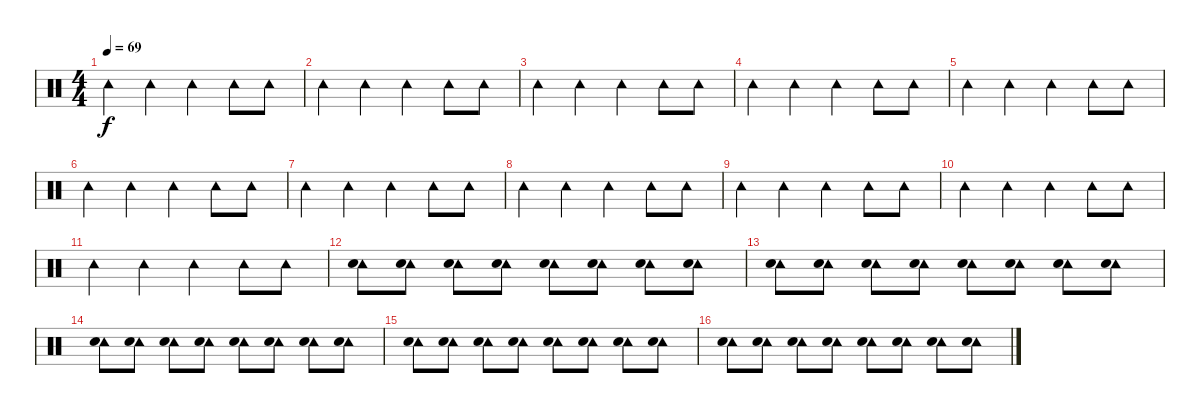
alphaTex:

\track "" {instrument percussion}
\staff {score}
\articulation defaults
\ts (4 4)
\tempo 69
\clef neutral
\ks c "Tambourine (hit)".4{dy f} "Tambourine (hit)".4 "Tambourine (hit)".4 "Tambourine (hit)".8 "Tambourine (hit)".8
|
"Tambourine (hit)".4 "Tambourine (hit)".4 "Tambourine (hit)".4 "Tambourine (hit)".8 "Tambourine (hit)".8 |
"Tambourine (hit)".4 "Tambourine (hit)".4 "Tambourine (hit)".4 "Tambourine (hit)".8 "Tambourine (hit)".8 |
"Tambourine (hit)".4 "Tambourine (hit)".4 "Tambourine (hit)".4 "Tambourine (hit)".8 "Tambourine (hit)".8 |
"Tambourine (hit)".4 "Tambourine (hit)".4 "Tambourine (hit)".4 "Tambourine (hit)".8 "Tambourine (hit)".8 |
"Tambourine (hit)".4 "Tambourine (hit)".4 "Tambourine (hit)".4 "Tambourine (hit)".8 "Tambourine (hit)".8 |
"Tambourine (hit)".4 "Tambourine (hit)".4 "Tambourine (hit)".4 "Tambourine (hit)".8 "Tambourine (hit)".8 |
"Tambourine (hit)".4 "Tambourine (hit)".4 "Tambourine (hit)".4 "Tambourine (hit)".8 "Tambourine (hit)".8 |
"Tambourine (hit)".4 "Tambourine (hit)".4 "Tambourine (hit)".4 "Tambourine (hit)".8 "Tambourine (hit)".8 |
"Tambourine (hit)".4 "Tambourine (hit)".4 "Tambourine (hit)".4 "Tambourine (hit)".8 "Tambourine (hit)".8 |
"Tambourine (hit)".4 "Tambourine (hit)".4 "Tambourine (hit)".4 "Tambourine (hit)".8 "Tambourine (hit)".8 |
("Tambourine (hit)" "Snare (hit) 2").8 ("Tambourine (hit)" "Snare (hit) 2").8 ("Tambourine (hit)" "Snare (hit) 2").8 ("Tambourine (hit)" "Snare (hit) 2").8 ("Tambourine (hit)" "Snare (hit) 2").8 ("Tambourine (hit)" "Snare (hit) 2").8 ("Tambourine (hit)" "Snare (hit) 2").8 ("Tambourine (hit)" "Snare (hit) 2").8 |
("Tambourine (hit)" "Snare (hit) 2").8 ("Tambourine (hit)" "Snare (hit) 2").8 ("Tambourine (hit)" "Snare (hit) 2").8 ("Tambourine (hit)" "Snare (hit) 2").8 ("Tambourine (hit)" "Snare (hit) 2").8 ("Tambourine (hit)" "Snare (hit) 2").8 ("Tambourine (hit)" "Snare (hit) 2").8 ("Tambourine (hit)" "Snare (hit) 2").8 |
("Tambourine (hit)" "Snare (hit) 2").8 ("Tambourine (hit)" "Snare (hit) 2").8 ("Tambourine (hit)" "Snare (hit) 2").8 ("Tambourine (hit)" "Snare (hit) 2").8 ("Tambourine (hit)" "Snare (hit) 2").8 ("Tambourine (hit)" "Snare (hit) 2").8 ("Tambourine (hit)" "Snare (hit) 2").8 ("Tambourine (hit)" "Snare (hit) 2").8 |
("Tambourine (hit)" "Snare (hit) 2").8 ("Tambourine (hit)" "Snare (hit) 2").8 ("Tambourine (hit)" "Snare (hit) 2").8 ("Tambourine (hit)" "Snare (hit) 2").8 ("Tambourine (hit)" "Snare (hit) 2").8 ("Tambourine (hit)" "Snare (hit) 2").8 ("Tambourine (hit)" "Snare (hit) 2").8 ("Tambourine (hit)" "Snare (hit) 2").8 |
("Tambourine (hit)" "Snare (hit) 2").8 ("Tambourine (hit)" "Snare (hit) 2").8 ("Tambourine (hit)" "Snare (hit) 2").8 ("Tambourine (hit)" "Snare (hit) 2").8 ("Tambourine (hit)" "Snare (hit) 2").8 ("Tambourine (hit)" "Snare (hit) 2").8 ("Tambourine (hit)" "Snare (hit) 2").8 ("Tambourine (hit)" "Snare (hit) 2").8
